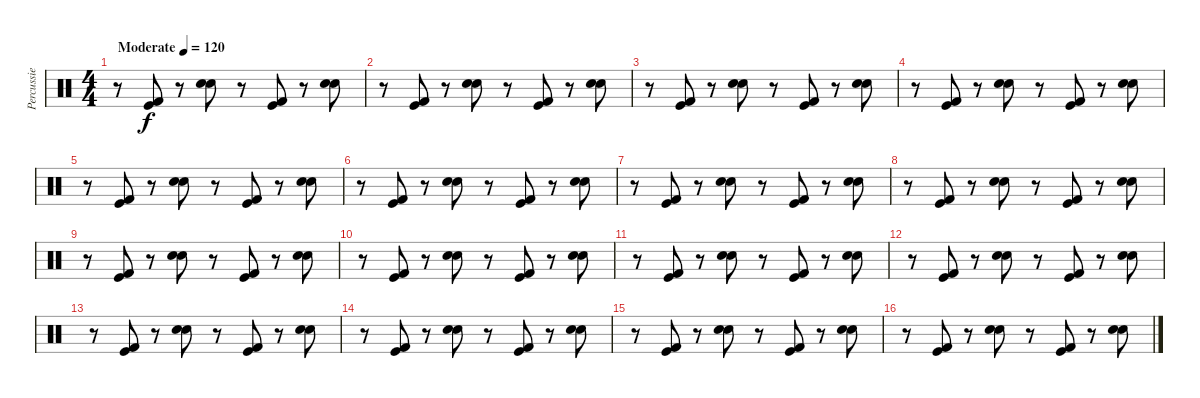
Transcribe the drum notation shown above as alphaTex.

\track ("Percussie" "Percussie") {instrument percussion}
\staff {score}
\articulation defaults
\ts (4 4)
\tempo (120 "Moderate")
\clef neutral
\ks c
r.8{dy f} ("Kick (hit)" "Kick (hit) 2").8 r.8 ("Electric Snare (hit)" "Snare (hit) 2").8 r.8 ("Kick (hit)" "Kick (hit) 2").8 r.8 ("Electric Snare (hit)" "Snare (hit) 2").8 |
r.8 ("Kick (hit)" "Kick (hit) 2").8 r.8 ("Electric Snare (hit)" "Snare (hit) 2").8 r.8 ("Kick (hit)" "Kick (hit) 2").8 r.8 ("Electric Snare (hit)" "Snare (hit) 2").8 |
r.8 ("Kick (hit)" "Kick (hit) 2").8 r.8 ("Electric Snare (hit)" "Snare (hit) 2").8 r.8 ("Kick (hit)" "Kick (hit) 2").8 r.8 ("Electric Snare (hit)" "Snare (hit) 2").8 |
r.8 ("Kick (hit)" "Kick (hit) 2").8 r.8 ("Electric Snare (hit)" "Snare (hit) 2").8 r.8 ("Kick (hit)" "Kick (hit) 2").8 r.8 ("Electric Snare (hit)" "Snare (hit) 2").8 |
r.8 ("Kick (hit)" "Kick (hit) 2").8 r.8 ("Electric Snare (hit)" "Snare (hit) 2").8 r.8 ("Kick (hit)" "Kick (hit) 2").8 r.8 ("Electric Snare (hit)" "Snare (hit) 2").8 |
r.8 ("Kick (hit)" "Kick (hit) 2").8 r.8 ("Electric Snare (hit)" "Snare (hit) 2").8 r.8 ("Kick (hit)" "Kick (hit) 2").8 r.8 ("Electric Snare (hit)" "Snare (hit) 2").8 |
r.8 ("Kick (hit)" "Kick (hit) 2").8 r.8 ("Electric Snare (hit)" "Snare (hit) 2").8 r.8 ("Kick (hit)" "Kick (hit) 2").8 r.8 ("Electric Snare (hit)" "Snare (hit) 2").8 |
r.8 ("Kick (hit)" "Kick (hit) 2").8 r.8 ("Electric Snare (hit)" "Snare (hit) 2").8 r.8 ("Kick (hit)" "Kick (hit) 2").8 r.8 ("Electric Snare (hit)" "Snare (hit) 2").8 |
r.8 ("Kick (hit)" "Kick (hit) 2").8 r.8 ("Electric Snare (hit)" "Snare (hit) 2").8 r.8 ("Kick (hit)" "Kick (hit) 2").8 r.8 ("Electric Snare (hit)" "Snare (hit) 2").8 |
r.8 ("Kick (hit)" "Kick (hit) 2").8 r.8 ("Electric Snare (hit)" "Snare (hit) 2").8 r.8 ("Kick (hit)" "Kick (hit) 2").8 r.8 ("Electric Snare (hit)" "Snare (hit) 2").8 |
r.8 ("Kick (hit)" "Kick (hit) 2").8 r.8 ("Electric Snare (hit)" "Snare (hit) 2").8 r.8 ("Kick (hit)" "Kick (hit) 2").8 r.8 ("Electric Snare (hit)" "Snare (hit) 2").8 |
r.8 ("Kick (hit)" "Kick (hit) 2").8 r.8 ("Electric Snare (hit)" "Snare (hit) 2").8 r.8 ("Kick (hit)" "Kick (hit) 2").8 r.8 ("Electric Snare (hit)" "Snare (hit) 2").8 |
r.8 ("Kick (hit)" "Kick (hit) 2").8 r.8 ("Electric Snare (hit)" "Snare (hit) 2").8 r.8 ("Kick (hit)" "Kick (hit) 2").8 r.8 ("Electric Snare (hit)" "Snare (hit) 2").8 |
r.8 ("Kick (hit)" "Kick (hit) 2").8 r.8 ("Electric Snare (hit)" "Snare (hit) 2").8 r.8 ("Kick (hit)" "Kick (hit) 2").8 r.8 ("Electric Snare (hit)" "Snare (hit) 2").8 |
r.8 ("Kick (hit)" "Kick (hit) 2").8 r.8 ("Electric Snare (hit)" "Snare (hit) 2").8 r.8 ("Kick (hit)" "Kick (hit) 2").8 r.8 ("Electric Snare (hit)" "Snare (hit) 2").8 |
r.8 ("Kick (hit)" "Kick (hit) 2").8 r.8 ("Electric Snare (hit)" "Snare (hit) 2").8 r.8 ("Kick (hit)" "Kick (hit) 2").8 r.8 ("Electric Snare (hit)" "Snare (hit) 2").8
